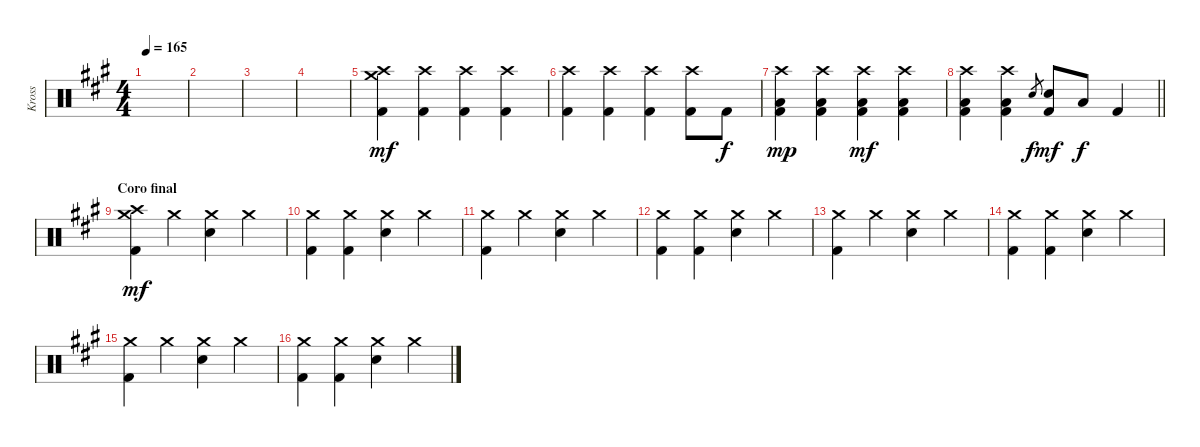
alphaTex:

\track ("Kross" "Kross") {instrument percussion}
\staff {score}
\articulation defaults
\ts (4 4)
\tempo 165
\clef neutral
\ks a
|
|
|
|
("Crash medium (hit)" "Crash high (hit)" "Kick (hit) 2").4{dy mf} ("Crash high (hit)" "Kick (hit) 2").4 ("Crash high (hit)" "Kick (hit) 2").4 ("Crash high (hit)" "Kick (hit) 2").4 |
("Crash high (hit)" "Kick (hit) 2").4 ("Crash high (hit)" "Kick (hit) 2").4 ("Crash high (hit)" "Kick (hit) 2").4 ("Crash high (hit)" "Kick (hit) 2").8 "Kick (hit) 2".8{dy f} |
("Crash high (hit)" "Low Floor Tom (hit)" "Kick (hit) 2").4{dy mp} ("Crash high (hit)" "Low Floor Tom (hit)" "Kick (hit) 2").4 ("Crash high (hit)" "Low Floor Tom (hit)" "Kick (hit) 2").4{dy mf} ("Crash high (hit)" "Low Floor Tom (hit)" "Kick (hit) 2").4 |
\barLineRight lightlight
("Crash high (hit)" "Low Floor Tom (hit)" "Kick (hit) 2").4 ("Crash high (hit)" "Low Floor Tom (hit)" "Kick (hit) 2").4 "Electric Snare (hit)".8{gr dy f} ("Electric Snare (hit)" "Kick (hit) 2").8{dy mf} "Low Floor Tom (hit)".8{dy f} "Kick (hit) 2".4 |
\section ("" "Coro final")
("Crash medium (hit)" "Crash high (hit)" "Kick (hit) 2").4{dy mf} "Crash medium (hit)".4 ("Crash medium (hit)" "Electric Snare (hit)").4 "Crash medium (hit)".4 |
("Crash medium (hit)" "Kick (hit) 2").4 ("Crash medium (hit)" "Kick (hit) 2").4 ("Crash medium (hit)" "Electric Snare (hit)").4 "Crash medium (hit)".4 |
("Crash medium (hit)" "Kick (hit) 2").4 "Crash medium (hit)".4 ("Crash medium (hit)" "Electric Snare (hit)").4 "Crash medium (hit)".4 |
("Crash medium (hit)" "Kick (hit) 2").4 ("Crash medium (hit)" "Kick (hit) 2").4 ("Crash medium (hit)" "Electric Snare (hit)").4 "Crash medium (hit)".4 |
("Crash medium (hit)" "Kick (hit) 2").4 "Crash medium (hit)".4 ("Crash medium (hit)" "Electric Snare (hit)").4 "Crash medium (hit)".4 |
("Crash medium (hit)" "Kick (hit) 2").4 ("Crash medium (hit)" "Kick (hit) 2").4 ("Crash medium (hit)" "Electric Snare (hit)").4 "Crash medium (hit)".4 |
("Crash medium (hit)" "Kick (hit) 2").4 "Crash medium (hit)".4 ("Crash medium (hit)" "Electric Snare (hit)").4 "Crash medium (hit)".4 |
("Crash medium (hit)" "Kick (hit) 2").4 ("Crash medium (hit)" "Kick (hit) 2").4 ("Crash medium (hit)" "Electric Snare (hit)").4 "Crash medium (hit)".4
